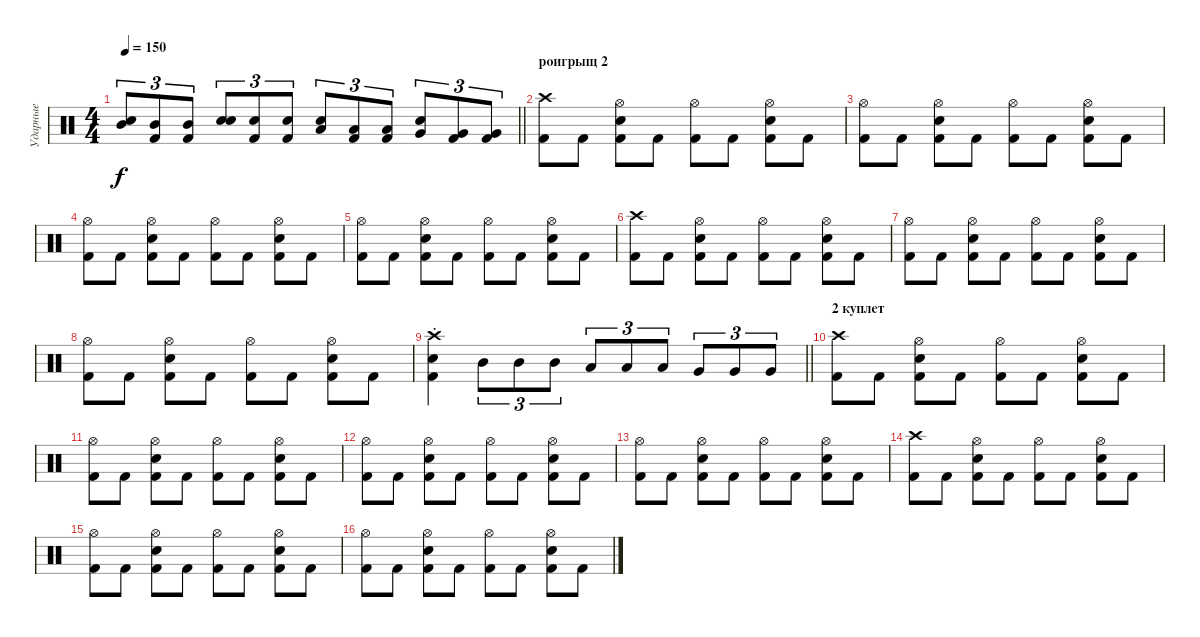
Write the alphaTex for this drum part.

\track ("Ударные" "Ударные") {instrument percussion}
\staff {score}
\articulation defaults
\ts (4 4)
\tempo 150
\clef neutral
\barLineRight lightlight
\ks c
("Mid Tom (hit)" "Snare (hit) 2").8{tu (3 2) dy f} ("Mid Tom (hit)" "Kick (hit) 2").8{tu (3 2)} ("Mid Tom (hit)" "Kick (hit) 2").8{tu (3 2)} ("Electric Snare (hit)" "Snare (hit) 2").8{tu (3 2)} ("Electric Snare (hit)" "Kick (hit) 2").8{tu (3 2)} ("Electric Snare (hit)" "Kick (hit) 2").8{tu (3 2)} ("Low Tom (hit)" "Snare (hit) 2").8{tu (3 2)} ("Low Tom (hit)" "Kick (hit) 2").8{tu (3 2)} ("Low Tom (hit)" "Kick (hit) 2").8{tu (3 2)} ("Very Low Tom (hit)" "Snare (hit) 2").8{tu (3 2)} ("Very Low Tom (hit)" "Kick (hit) 2").8{tu (3 2)} ("Very Low Tom (hit)" "Kick (hit) 2").8{tu (3 2)} |
\section ("" "роигрыщ 2")
("Kick (hit) 2" "Crash high (hit)").8 "Kick (hit) 2".8 ("Snare (hit) 2" "Kick (hit) 2" "Hi-Hat (open)").8 "Kick (hit) 2".8 ("Kick (hit) 2" "Hi-Hat (open)").8 "Kick (hit) 2".8 ("Snare (hit) 2" "Kick (hit) 2" "Hi-Hat (open)").8 "Kick (hit) 2".8 |
("Kick (hit) 2" "Hi-Hat (open)").8 "Kick (hit) 2".8 ("Snare (hit) 2" "Kick (hit) 2" "Hi-Hat (open)").8 "Kick (hit) 2".8 ("Kick (hit) 2" "Hi-Hat (open)").8 "Kick (hit) 2".8 ("Snare (hit) 2" "Kick (hit) 2" "Hi-Hat (open)").8 "Kick (hit) 2".8 |
("Kick (hit) 2" "Hi-Hat (open)").8 "Kick (hit) 2".8 ("Snare (hit) 2" "Kick (hit) 2" "Hi-Hat (open)").8 "Kick (hit) 2".8 ("Kick (hit) 2" "Hi-Hat (open)").8 "Kick (hit) 2".8 ("Snare (hit) 2" "Kick (hit) 2" "Hi-Hat (open)").8 "Kick (hit) 2".8 |
("Kick (hit) 2" "Hi-Hat (open)").8 "Kick (hit) 2".8 ("Snare (hit) 2" "Kick (hit) 2" "Hi-Hat (open)").8 "Kick (hit) 2".8 ("Kick (hit) 2" "Hi-Hat (open)").8 "Kick (hit) 2".8 ("Snare (hit) 2" "Kick (hit) 2" "Hi-Hat (open)").8 "Kick (hit) 2".8 |
("Kick (hit) 2" "Crash high (hit)").8 "Kick (hit) 2".8 ("Snare (hit) 2" "Kick (hit) 2" "Hi-Hat (open)").8 "Kick (hit) 2".8 ("Kick (hit) 2" "Hi-Hat (open)").8 "Kick (hit) 2".8 ("Snare (hit) 2" "Kick (hit) 2" "Hi-Hat (open)").8 "Kick (hit) 2".8 |
("Kick (hit) 2" "Hi-Hat (open)").8 "Kick (hit) 2".8 ("Snare (hit) 2" "Kick (hit) 2" "Hi-Hat (open)").8 "Kick (hit) 2".8 ("Kick (hit) 2" "Hi-Hat (open)").8 "Kick (hit) 2".8 ("Snare (hit) 2" "Kick (hit) 2" "Hi-Hat (open)").8 "Kick (hit) 2".8 |
("Kick (hit) 2" "Hi-Hat (open)").8 "Kick (hit) 2".8 ("Snare (hit) 2" "Kick (hit) 2" "Hi-Hat (open)").8 "Kick (hit) 2".8 ("Kick (hit) 2" "Hi-Hat (open)").8 "Kick (hit) 2".8 ("Snare (hit) 2" "Kick (hit) 2" "Hi-Hat (open)").8 "Kick (hit) 2".8 |
\barLineRight lightlight
("Kick (hit) 2"{st} "Snare (hit) 2"{st} "Crash high (hit)"{st}).4 "Mid Tom (hit)".8{tu (3 2)} "Mid Tom (hit)".8{tu (3 2)} "Mid Tom (hit)".8{tu (3 2)} "Low Tom (hit)".8{tu (3 2)} "Low Tom (hit)".8{tu (3 2)} "Low Tom (hit)".8{tu (3 2)} "Very Low Tom (hit)".8{tu (3 2)} "Very Low Tom (hit)".8{tu (3 2)} "Very Low Tom (hit)".8{tu (3 2)} |
\section ("" "2 куплет")
("Kick (hit) 2" "Crash high (hit)").8 "Kick (hit) 2".8 ("Snare (hit) 2" "Kick (hit) 2" "Hi-Hat (open)").8 "Kick (hit) 2".8 ("Kick (hit) 2" "Hi-Hat (open)").8 "Kick (hit) 2".8 ("Snare (hit) 2" "Kick (hit) 2" "Hi-Hat (open)").8 "Kick (hit) 2".8 |
("Kick (hit) 2" "Hi-Hat (open)").8 "Kick (hit) 2".8 ("Snare (hit) 2" "Kick (hit) 2" "Hi-Hat (open)").8 "Kick (hit) 2".8 ("Kick (hit) 2" "Hi-Hat (open)").8 "Kick (hit) 2".8 ("Snare (hit) 2" "Kick (hit) 2" "Hi-Hat (open)").8 "Kick (hit) 2".8 |
("Kick (hit) 2" "Hi-Hat (open)").8 "Kick (hit) 2".8 ("Snare (hit) 2" "Kick (hit) 2" "Hi-Hat (open)").8 "Kick (hit) 2".8 ("Kick (hit) 2" "Hi-Hat (open)").8 "Kick (hit) 2".8 ("Snare (hit) 2" "Kick (hit) 2" "Hi-Hat (open)").8 "Kick (hit) 2".8 |
("Kick (hit) 2" "Hi-Hat (open)").8 "Kick (hit) 2".8 ("Snare (hit) 2" "Kick (hit) 2" "Hi-Hat (open)").8 "Kick (hit) 2".8 ("Kick (hit) 2" "Hi-Hat (open)").8 "Kick (hit) 2".8 ("Snare (hit) 2" "Kick (hit) 2" "Hi-Hat (open)").8 "Kick (hit) 2".8 |
("Kick (hit) 2" "Crash high (hit)").8 "Kick (hit) 2".8 ("Snare (hit) 2" "Kick (hit) 2" "Hi-Hat (open)").8 "Kick (hit) 2".8 ("Kick (hit) 2" "Hi-Hat (open)").8 "Kick (hit) 2".8 ("Snare (hit) 2" "Kick (hit) 2" "Hi-Hat (open)").8 "Kick (hit) 2".8 |
("Kick (hit) 2" "Hi-Hat (open)").8 "Kick (hit) 2".8 ("Snare (hit) 2" "Kick (hit) 2" "Hi-Hat (open)").8 "Kick (hit) 2".8 ("Kick (hit) 2" "Hi-Hat (open)").8 "Kick (hit) 2".8 ("Snare (hit) 2" "Kick (hit) 2" "Hi-Hat (open)").8 "Kick (hit) 2".8 |
("Kick (hit) 2" "Hi-Hat (open)").8 "Kick (hit) 2".8 ("Snare (hit) 2" "Kick (hit) 2" "Hi-Hat (open)").8 "Kick (hit) 2".8 ("Kick (hit) 2" "Hi-Hat (open)").8 "Kick (hit) 2".8 ("Snare (hit) 2" "Kick (hit) 2" "Hi-Hat (open)").8 "Kick (hit) 2".8
